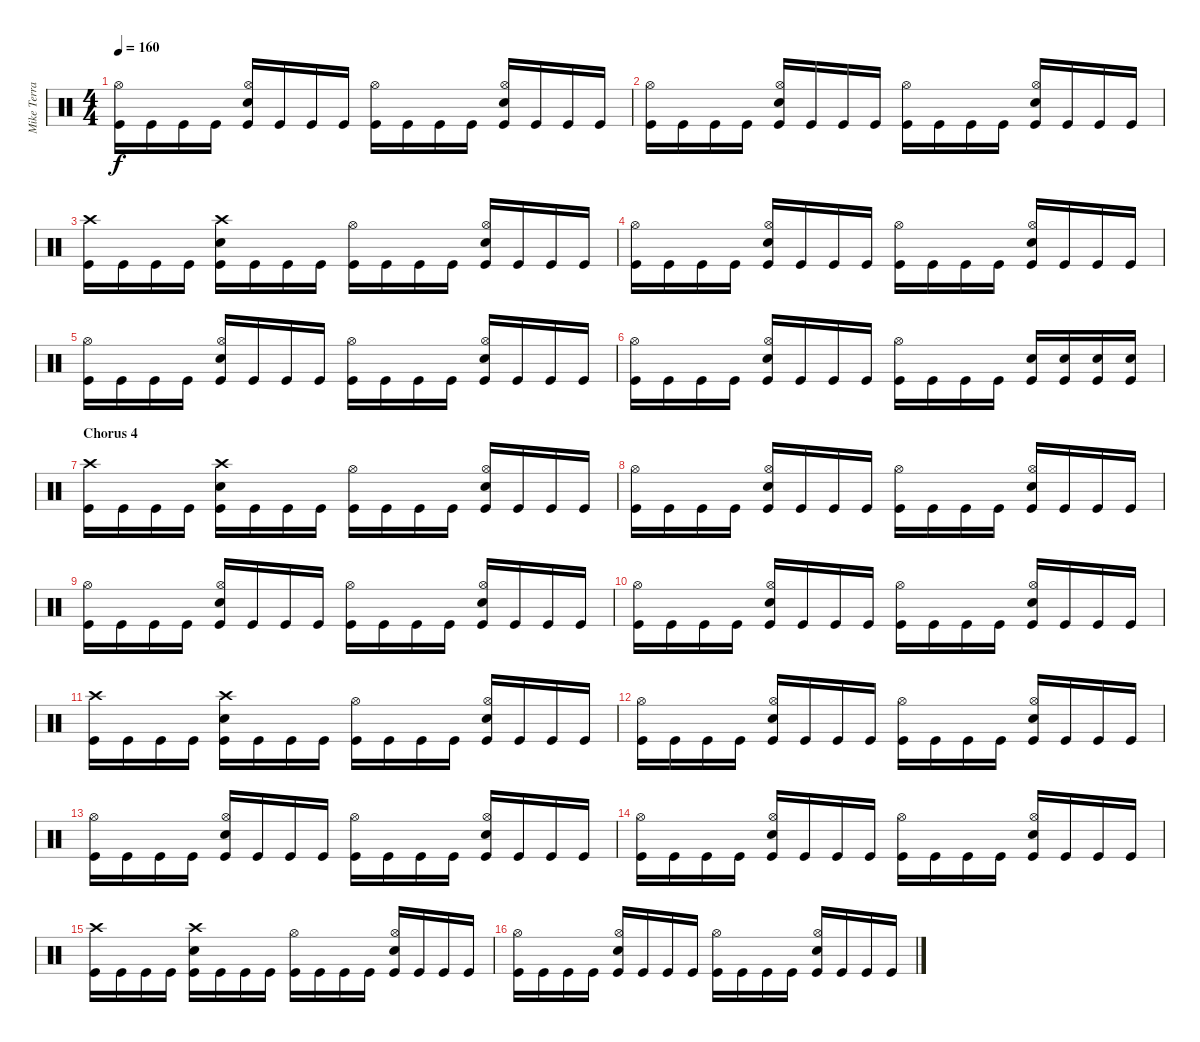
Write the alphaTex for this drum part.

\track ("Mike Terrana - Drums" "Mike Terra") {instrument percussion}
\staff {score}
\articulation defaults
\ts (4 4)
\tempo 160
\clef neutral
\ks c
("Kick (hit)" "Hi-Hat (open)").16{dy f} "Kick (hit)".16 "Kick (hit)".16 "Kick (hit)".16 ("Kick (hit)" "Electric Snare (hit)" "Hi-Hat (open)").16 "Kick (hit)".16 "Kick (hit)".16 "Kick (hit)".16 ("Kick (hit)" "Hi-Hat (open)").16 "Kick (hit)".16 "Kick (hit)".16 "Kick (hit)".16 ("Kick (hit)" "Electric Snare (hit)" "Hi-Hat (open)").16 "Kick (hit)".16 "Kick (hit)".16 "Kick (hit)".16 |
("Kick (hit)" "Hi-Hat (open)").16 "Kick (hit)".16 "Kick (hit)".16 "Kick (hit)".16 ("Kick (hit)" "Electric Snare (hit)" "Hi-Hat (open)").16 "Kick (hit)".16 "Kick (hit)".16 "Kick (hit)".16 ("Kick (hit)" "Hi-Hat (open)").16 "Kick (hit)".16 "Kick (hit)".16 "Kick (hit)".16 ("Kick (hit)" "Electric Snare (hit)" "Hi-Hat (open)").16 "Kick (hit)".16 "Kick (hit)".16 "Kick (hit)".16 |
("Kick (hit)" "Crash high (hit)").16 "Kick (hit)".16 "Kick (hit)".16 "Kick (hit)".16 ("Kick (hit)" "Electric Snare (hit)" "Crash high (hit)").16 "Kick (hit)".16 "Kick (hit)".16 "Kick (hit)".16 ("Kick (hit)" "Hi-Hat (open)").16 "Kick (hit)".16 "Kick (hit)".16 "Kick (hit)".16 ("Kick (hit)" "Electric Snare (hit)" "Hi-Hat (open)").16 "Kick (hit)".16 "Kick (hit)".16 "Kick (hit)".16 |
("Kick (hit)" "Hi-Hat (open)").16 "Kick (hit)".16 "Kick (hit)".16 "Kick (hit)".16 ("Kick (hit)" "Electric Snare (hit)" "Hi-Hat (open)").16 "Kick (hit)".16 "Kick (hit)".16 "Kick (hit)".16 ("Kick (hit)" "Hi-Hat (open)").16 "Kick (hit)".16 "Kick (hit)".16 "Kick (hit)".16 ("Kick (hit)" "Electric Snare (hit)" "Hi-Hat (open)").16 "Kick (hit)".16 "Kick (hit)".16 "Kick (hit)".16 |
("Kick (hit)" "Hi-Hat (open)").16 "Kick (hit)".16 "Kick (hit)".16 "Kick (hit)".16 ("Kick (hit)" "Electric Snare (hit)" "Hi-Hat (open)").16 "Kick (hit)".16 "Kick (hit)".16 "Kick (hit)".16 ("Kick (hit)" "Hi-Hat (open)").16 "Kick (hit)".16 "Kick (hit)".16 "Kick (hit)".16 ("Kick (hit)" "Electric Snare (hit)" "Hi-Hat (open)").16 "Kick (hit)".16 "Kick (hit)".16 "Kick (hit)".16 |
("Kick (hit)" "Hi-Hat (open)").16 "Kick (hit)".16 "Kick (hit)".16 "Kick (hit)".16 ("Kick (hit)" "Electric Snare (hit)" "Hi-Hat (open)").16 "Kick (hit)".16 "Kick (hit)".16 "Kick (hit)".16 ("Kick (hit)" "Hi-Hat (open)").16 "Kick (hit)".16 "Kick (hit)".16 "Kick (hit)".16 ("Kick (hit)" "Electric Snare (hit)").16 ("Kick (hit)" "Electric Snare (hit)").16 ("Kick (hit)" "Electric Snare (hit)").16 ("Kick (hit)" "Electric Snare (hit)").16 |
\section ("" "Chorus 4")
("Kick (hit)" "Crash high (hit)").16 "Kick (hit)".16 "Kick (hit)".16 "Kick (hit)".16 ("Kick (hit)" "Electric Snare (hit)" "Crash high (hit)").16 "Kick (hit)".16 "Kick (hit)".16 "Kick (hit)".16 ("Kick (hit)" "Hi-Hat (open)").16 "Kick (hit)".16 "Kick (hit)".16 "Kick (hit)".16 ("Kick (hit)" "Electric Snare (hit)" "Hi-Hat (open)").16 "Kick (hit)".16 "Kick (hit)".16 "Kick (hit)".16 |
("Kick (hit)" "Hi-Hat (open)").16 "Kick (hit)".16 "Kick (hit)".16 "Kick (hit)".16 ("Kick (hit)" "Electric Snare (hit)" "Hi-Hat (open)").16 "Kick (hit)".16 "Kick (hit)".16 "Kick (hit)".16 ("Kick (hit)" "Hi-Hat (open)").16 "Kick (hit)".16 "Kick (hit)".16 "Kick (hit)".16 ("Kick (hit)" "Electric Snare (hit)" "Hi-Hat (open)").16 "Kick (hit)".16 "Kick (hit)".16 "Kick (hit)".16 |
("Kick (hit)" "Hi-Hat (open)").16 "Kick (hit)".16 "Kick (hit)".16 "Kick (hit)".16 ("Kick (hit)" "Electric Snare (hit)" "Hi-Hat (open)").16 "Kick (hit)".16 "Kick (hit)".16 "Kick (hit)".16 ("Kick (hit)" "Hi-Hat (open)").16 "Kick (hit)".16 "Kick (hit)".16 "Kick (hit)".16 ("Kick (hit)" "Electric Snare (hit)" "Hi-Hat (open)").16 "Kick (hit)".16 "Kick (hit)".16 "Kick (hit)".16 |
("Kick (hit)" "Hi-Hat (open)").16 "Kick (hit)".16 "Kick (hit)".16 "Kick (hit)".16 ("Kick (hit)" "Electric Snare (hit)" "Hi-Hat (open)").16 "Kick (hit)".16 "Kick (hit)".16 "Kick (hit)".16 ("Kick (hit)" "Hi-Hat (open)").16 "Kick (hit)".16 "Kick (hit)".16 "Kick (hit)".16 ("Kick (hit)" "Electric Snare (hit)" "Hi-Hat (open)").16 "Kick (hit)".16 "Kick (hit)".16 "Kick (hit)".16 |
("Kick (hit)" "Crash high (hit)").16 "Kick (hit)".16 "Kick (hit)".16 "Kick (hit)".16 ("Kick (hit)" "Electric Snare (hit)" "Crash high (hit)").16 "Kick (hit)".16 "Kick (hit)".16 "Kick (hit)".16 ("Kick (hit)" "Hi-Hat (open)").16 "Kick (hit)".16 "Kick (hit)".16 "Kick (hit)".16 ("Kick (hit)" "Electric Snare (hit)" "Hi-Hat (open)").16 "Kick (hit)".16 "Kick (hit)".16 "Kick (hit)".16 |
("Kick (hit)" "Hi-Hat (open)").16 "Kick (hit)".16 "Kick (hit)".16 "Kick (hit)".16 ("Kick (hit)" "Electric Snare (hit)" "Hi-Hat (open)").16 "Kick (hit)".16 "Kick (hit)".16 "Kick (hit)".16 ("Kick (hit)" "Hi-Hat (open)").16 "Kick (hit)".16 "Kick (hit)".16 "Kick (hit)".16 ("Kick (hit)" "Electric Snare (hit)" "Hi-Hat (open)").16 "Kick (hit)".16 "Kick (hit)".16 "Kick (hit)".16 |
("Kick (hit)" "Hi-Hat (open)").16 "Kick (hit)".16 "Kick (hit)".16 "Kick (hit)".16 ("Kick (hit)" "Electric Snare (hit)" "Hi-Hat (open)").16 "Kick (hit)".16 "Kick (hit)".16 "Kick (hit)".16 ("Kick (hit)" "Hi-Hat (open)").16 "Kick (hit)".16 "Kick (hit)".16 "Kick (hit)".16 ("Kick (hit)" "Electric Snare (hit)" "Hi-Hat (open)").16 "Kick (hit)".16 "Kick (hit)".16 "Kick (hit)".16 |
("Kick (hit)" "Hi-Hat (open)").16 "Kick (hit)".16 "Kick (hit)".16 "Kick (hit)".16 ("Kick (hit)" "Electric Snare (hit)" "Hi-Hat (open)").16 "Kick (hit)".16 "Kick (hit)".16 "Kick (hit)".16 ("Kick (hit)" "Hi-Hat (open)").16 "Kick (hit)".16 "Kick (hit)".16 "Kick (hit)".16 ("Kick (hit)" "Electric Snare (hit)" "Hi-Hat (open)").16 "Kick (hit)".16 "Kick (hit)".16 "Kick (hit)".16 |
("Kick (hit)" "Crash high (hit)").16 "Kick (hit)".16 "Kick (hit)".16 "Kick (hit)".16 ("Kick (hit)" "Electric Snare (hit)" "Crash high (hit)").16 "Kick (hit)".16 "Kick (hit)".16 "Kick (hit)".16 ("Kick (hit)" "Hi-Hat (open)").16 "Kick (hit)".16 "Kick (hit)".16 "Kick (hit)".16 ("Kick (hit)" "Electric Snare (hit)" "Hi-Hat (open)").16 "Kick (hit)".16 "Kick (hit)".16 "Kick (hit)".16 |
("Kick (hit)" "Hi-Hat (open)").16 "Kick (hit)".16 "Kick (hit)".16 "Kick (hit)".16 ("Kick (hit)" "Electric Snare (hit)" "Hi-Hat (open)").16 "Kick (hit)".16 "Kick (hit)".16 "Kick (hit)".16 ("Kick (hit)" "Hi-Hat (open)").16 "Kick (hit)".16 "Kick (hit)".16 "Kick (hit)".16 ("Kick (hit)" "Electric Snare (hit)" "Hi-Hat (open)").16 "Kick (hit)".16 "Kick (hit)".16 "Kick (hit)".16
